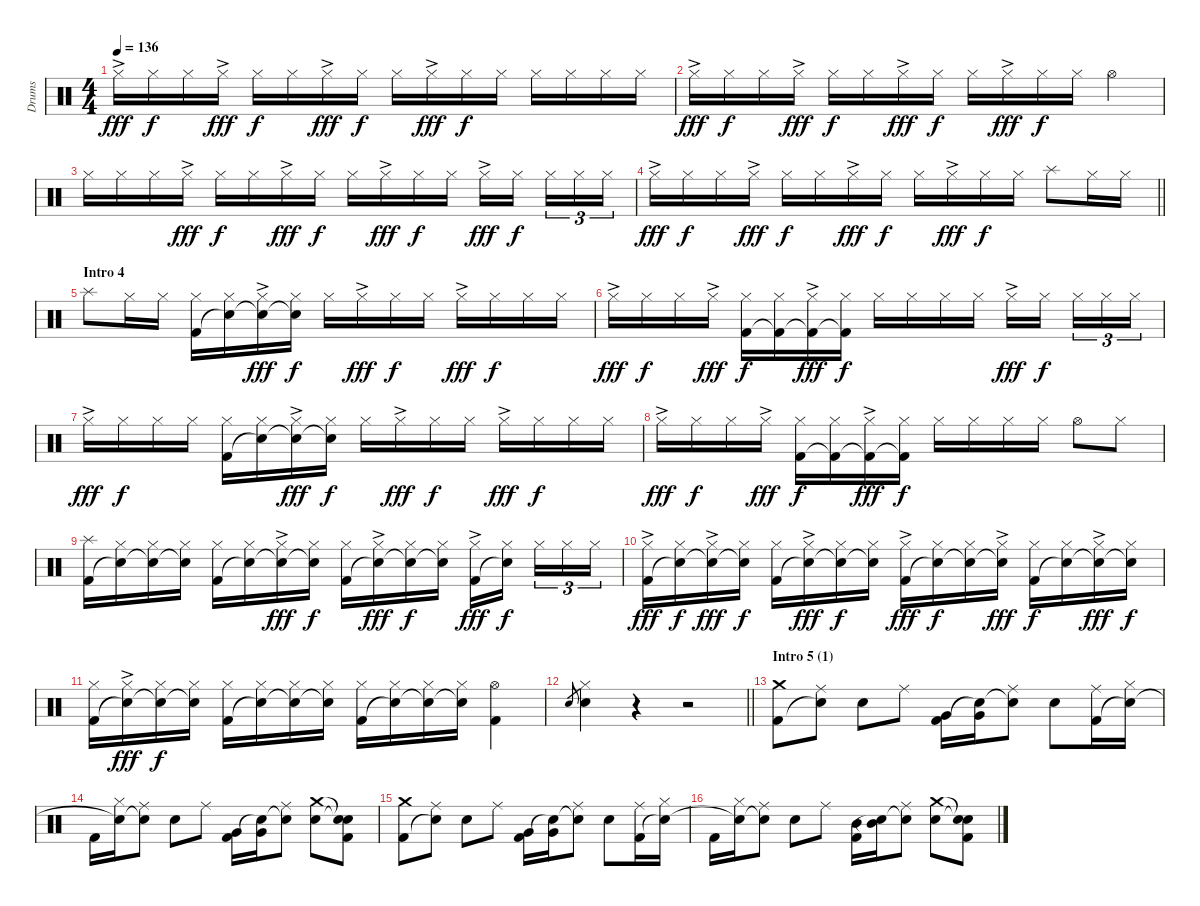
\track ("Drums" "Drums") {instrument percussion}
\staff {score}
\articulation defaults
\ts (4 4)
\tempo 136
\clef neutral
\ks c "Hi-Hat (closed)"{ac}.16{dy fff} "Hi-Hat (closed)".16{dy f} "Hi-Hat (closed)".16 "Hi-Hat (closed)"{ac}.16{dy fff} "Hi-Hat (closed)".16{dy f} "Hi-Hat (closed)".16 "Hi-Hat (closed)"{ac}.16{dy fff} "Hi-Hat (closed)".16{dy f} "Hi-Hat (closed)".16 "Hi-Hat (closed)"{ac}.16{dy fff} "Hi-Hat (closed)".16{dy f} "Hi-Hat (closed)".16 "Hi-Hat (closed)".16 "Hi-Hat (closed)".16 "Hi-Hat (closed)".16 "Hi-Hat (closed)".16
|
"Hi-Hat (closed)"{ac}.16{dy fff} "Hi-Hat (closed)".16{dy f} "Hi-Hat (closed)".16 "Hi-Hat (closed)"{ac}.16{dy fff} "Hi-Hat (closed)".16{dy f} "Hi-Hat (closed)".16 "Hi-Hat (closed)"{ac}.16{dy fff} "Hi-Hat (closed)".16{dy f} "Hi-Hat (closed)".16 "Hi-Hat (closed)"{ac}.16{dy fff} "Hi-Hat (closed)".16{dy f} "Hi-Hat (closed)".16 "Hi-Hat (open)".4 |
"Hi-Hat (closed)".16 "Hi-Hat (closed)".16 "Hi-Hat (closed)".16 "Hi-Hat (closed)"{ac}.16{dy fff} "Hi-Hat (closed)".16{dy f} "Hi-Hat (closed)".16 "Hi-Hat (closed)"{ac}.16{dy fff} "Hi-Hat (closed)".16{dy f} "Hi-Hat (closed)".16 "Hi-Hat (closed)"{ac}.16{dy fff} "Hi-Hat (closed)".16{dy f} "Hi-Hat (closed)".16 "Hi-Hat (closed)"{ac}.16{dy fff} "Hi-Hat (closed)".16{dy f} "Hi-Hat (closed)".16{tu (3 2)} "Hi-Hat (closed)".16{tu (3 2)} "Hi-Hat (closed)".16{tu (3 2)} |
\barLineRight lightlight "Hi-Hat (closed)"{ac}.16{dy fff} "Hi-Hat (closed)".16{dy f} "Hi-Hat (closed)".16 "Hi-Hat (closed)"{ac}.16{dy fff} "Hi-Hat (closed)".16{dy f} "Hi-Hat (closed)".16 "Hi-Hat (closed)"{ac}.16{dy fff} "Hi-Hat (closed)".16{dy f} "Hi-Hat (closed)".16 "Hi-Hat (closed)"{ac}.16{dy fff} "Hi-Hat (closed)".16{dy f} "Hi-Hat (closed)".16 "Splash (hit)".8 "Hi-Hat (closed)".16 "Hi-Hat (closed)".16
|
\section ("" "Intro 4")
"Splash (hit)".8 "Hi-Hat (closed)".16 "Hi-Hat (closed)".16 ("Hi-Hat (closed)" "Kick (hit) 2").16 ("Hi-Hat (closed)" "Snare (hit)"{t}).16 ("Hi-Hat (closed)"{ac} "Snare (hit)"{t}).16{dy fff} ("Hi-Hat (closed)" "Snare (hit)"{t}).16{dy f} "Hi-Hat (closed)".16 "Hi-Hat (closed)"{ac}.16{dy fff} "Hi-Hat (closed)".16{dy f} "Hi-Hat (closed)".16 "Hi-Hat (closed)"{ac}.16{dy fff} "Hi-Hat (closed)".16{dy f} "Hi-Hat (closed)".16 "Hi-Hat (closed)".16 |
"Hi-Hat (closed)"{ac}.16{dy fff} "Hi-Hat (closed)".16{dy f} "Hi-Hat (closed)".16 "Hi-Hat (closed)"{ac}.16{dy fff} ("Hi-Hat (closed)" "Kick (hit) 2").16{dy f} ("Hi-Hat (closed)" "Kick (hit) 2"{t}).16 ("Hi-Hat (closed)"{ac} "Kick (hit) 2"{t}).16{dy fff} ("Hi-Hat (closed)" "Kick (hit) 2"{t}).16{dy f} "Hi-Hat (closed)".16 "Hi-Hat (closed)".16 "Hi-Hat (closed)".16 "Hi-Hat (closed)".16 "Hi-Hat (closed)"{ac}.16{dy fff} "Hi-Hat (closed)".16{dy f} "Hi-Hat (closed)".16{tu (3 2)} "Hi-Hat (closed)".16{tu (3 2)} "Hi-Hat (closed)".16{tu (3 2)} |
"Hi-Hat (closed)"{ac}.16{dy fff} "Hi-Hat (closed)".16{dy f} "Hi-Hat (closed)".16 "Hi-Hat (closed)".16 ("Hi-Hat (closed)" "Kick (hit) 2").16 ("Hi-Hat (closed)" "Snare (hit)"{t}).16 ("Hi-Hat (closed)"{ac} "Snare (hit)"{t}).16{dy fff} ("Hi-Hat (closed)" "Snare (hit)"{t}).16{dy f} "Hi-Hat (closed)".16 "Hi-Hat (closed)"{ac}.16{dy fff} "Hi-Hat (closed)".16{dy f} "Hi-Hat (closed)".16 "Hi-Hat (closed)"{ac}.16{dy fff} "Hi-Hat (closed)".16{dy f} "Hi-Hat (closed)".16 "Hi-Hat (closed)".16 |
"Hi-Hat (closed)"{ac}.16{dy fff} "Hi-Hat (closed)".16{dy f} "Hi-Hat (closed)".16 "Hi-Hat (closed)"{ac}.16{dy fff} ("Hi-Hat (closed)" "Kick (hit) 2").16{dy f} ("Hi-Hat (closed)" "Kick (hit) 2"{t}).16 ("Hi-Hat (closed)"{ac} "Kick (hit) 2"{t}).16{dy fff} ("Hi-Hat (closed)" "Kick (hit) 2"{t}).16{dy f} "Hi-Hat (closed)".16 "Hi-Hat (closed)".16 "Hi-Hat (closed)".16 "Hi-Hat (closed)".16 "Hi-Hat (open)".8 "Hi-Hat (closed)".8 |
("Splash (hit)" "Kick (hit) 2").16 ("Hi-Hat (closed)" "Snare (hit)"{t}).16 ("Hi-Hat (closed)" "Snare (hit)"{t}).16 ("Hi-Hat (closed)" "Snare (hit)"{t}).16 ("Hi-Hat (closed)" "Kick (hit) 2").16 ("Hi-Hat (closed)" "Snare (hit)"{t}).16 ("Hi-Hat (closed)"{ac} "Snare (hit)"{t}).16{dy fff} ("Hi-Hat (closed)" "Snare (hit)"{t}).16{dy f} ("Hi-Hat (closed)" "Kick (hit) 2").16 ("Hi-Hat (closed)"{ac} "Snare (hit)"{t}).16{dy fff} ("Hi-Hat (closed)" "Snare (hit)"{t}).16{dy f} ("Hi-Hat (closed)" "Snare (hit)"{t}).16 ("Hi-Hat (closed)"{ac} "Kick (hit) 2").16{dy fff} ("Hi-Hat (closed)" "Snare (hit)"{t}).16{dy f} "Hi-Hat (closed)".16{tu (3 2)} "Hi-Hat (closed)".16{tu (3 2)} "Hi-Hat (closed)".16{tu (3 2)} |
("Hi-Hat (closed)"{ac} "Kick (hit) 2").16{dy fff} ("Hi-Hat (closed)" "Snare (hit)"{t}).16{dy f} ("Hi-Hat (closed)"{ac} "Snare (hit)"{t}).16{dy fff} ("Hi-Hat (closed)" "Snare (hit)"{t}).16{dy f} ("Hi-Hat (closed)" "Kick (hit) 2").16 ("Hi-Hat (closed)"{ac} "Snare (hit)"{t}).16{dy fff} ("Hi-Hat (closed)" "Snare (hit)"{t}).16{dy f} ("Hi-Hat (closed)" "Snare (hit)"{t}).16 ("Hi-Hat (closed)"{ac} "Kick (hit) 2").16{dy fff} ("Hi-Hat (closed)" "Snare (hit)"{t}).16{dy f} ("Hi-Hat (closed)" "Snare (hit)"{t}).16 ("Hi-Hat (closed)"{ac} "Snare (hit)"{t}).16{dy fff} ("Hi-Hat (closed)" "Kick (hit) 2").16{dy f} ("Hi-Hat (closed)" "Snare (hit)"{t}).16 ("Hi-Hat (closed)"{ac} "Snare (hit)"{t}).16{dy fff} ("Hi-Hat (closed)" "Snare (hit)"{t}).16{dy f} |
("Hi-Hat (closed)" "Kick (hit) 2").16 ("Hi-Hat (closed)"{ac} "Snare (hit)"{t}).16{dy fff} ("Hi-Hat (closed)" "Snare (hit)"{t}).16{dy f} ("Hi-Hat (closed)" "Snare (hit)"{t}).16 ("Hi-Hat (closed)" "Kick (hit) 2").16 ("Hi-Hat (closed)" "Snare (hit)"{t}).16 ("Hi-Hat (closed)" "Snare (hit)"{t}).16 ("Hi-Hat (closed)" "Snare (hit)"{t}).16 ("Hi-Hat (closed)" "Kick (hit) 2").16 ("Hi-Hat (closed)" "Snare (hit)"{t}).16 ("Hi-Hat (closed)" "Snare (hit)"{t}).16 ("Hi-Hat (closed)" "Snare (hit)"{t}).16 ("Hi-Hat (open)" "Kick (hit) 2").4 |
\barLineRight lightlight "Electric Snare (hit)".8{gr}
("Hi-Hat (closed)" "Electric Snare (hit)").4 r.4 r.2 |
\section ("" "Intro 5 (1)")
("Crash medium (hit)" "Kick (hit) 2").8 ("Ride (middle)" "Snare (hit)"{t}).8 "Electric Snare (hit)".8 "Ride (middle)".8 ("Very Low Tom (hit)" "Kick (hit) 2").16 ("Very Low Tom (hit)" "Snare (hit)"{t}).16 ("Ride (middle)" "Snare (hit)"{t}).8 "Electric Snare (hit)".8 ("Ride (middle)" "Kick (hit) 2").16 ("Hi-Hat (closed)" "Snare (hit)"{t}).16 |
"Kick (hit) 2".16 ("Hi-Hat (closed)" "Snare (hit)"{t}).16 ("Ride (middle)" "Snare (hit)"{t}).8 "Electric Snare (hit)".8 "Ride (middle)".8 ("Very Low Tom (hit)" "Kick (hit) 2").16 ("Very Low Tom (hit)" "Snare (hit)"{t}).16 ("Ride (middle)" "Snare (hit)"{t}).8 ("Crash medium (hit)" "Electric Snare (hit)").8 ("Snare (hit)"{t} "Snare (hit)"{t} "Kick (hit) 2").8 |
("Crash medium (hit)" "Kick (hit) 2").8 ("Ride (middle)" "Snare (hit)"{t}).8 "Electric Snare (hit)".8 "Ride (middle)".8 ("Very Low Tom (hit)" "Kick (hit) 2").16 ("Very Low Tom (hit)" "Snare (hit)"{t}).16 ("Ride (middle)" "Snare (hit)"{t}).8 "Electric Snare (hit)".8 ("Ride (middle)" "Kick (hit) 2").16 ("Hi-Hat (closed)" "Snare (hit)"{t}).16 |
"Kick (hit) 2".16 ("Hi-Hat (closed)" "Snare (hit)"{t}).16 ("Ride (middle)" "Snare (hit)"{t}).8 "Electric Snare (hit)".8 "Ride (middle)".8 ("Mid Tom (hit)" "Kick (hit) 2").16 ("Mid Tom (hit)" "Snare (hit)"{t}).16 ("Ride (middle)" "Snare (hit)"{t}).8 ("Crash medium (hit)" "Electric Snare (hit)").8 ("Snare (hit)"{t} "Snare (hit)"{t} "Kick (hit) 2").8
